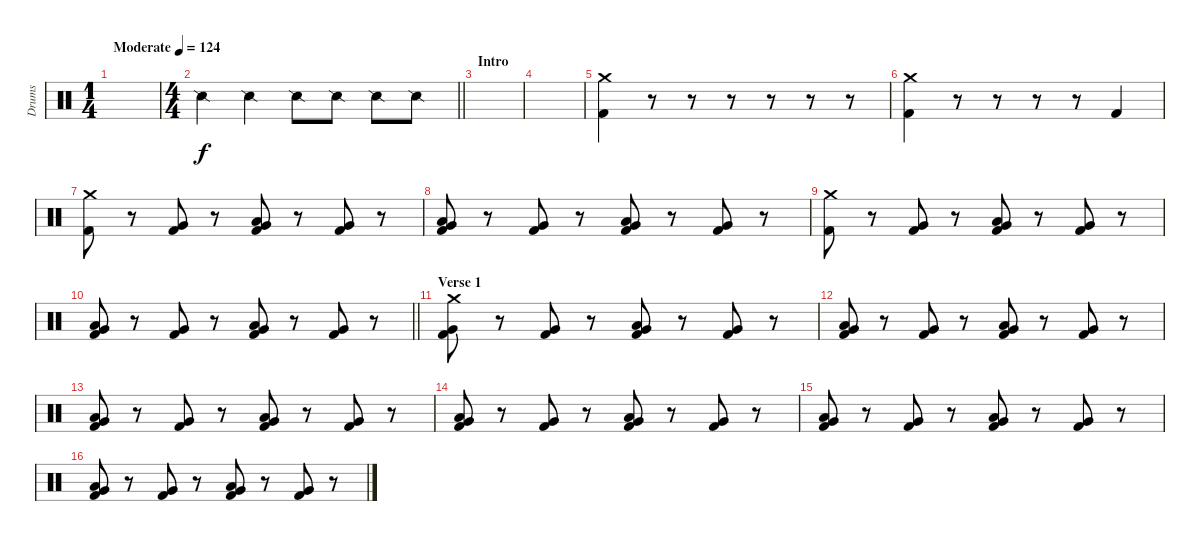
\track ("Drums" "Drums") {instrument percussion}
\staff {score}
\articulation defaults
\ts (1 4)
\tempo (124 "Moderate")
\clef neutral
\ks c
|
\ts (4 4)
\barLineRight lightlight "Snare (side stick) 2".4 "Snare (side stick) 2".4 "Snare (side stick) 2".8 "Snare (side stick) 2".8 "Snare (side stick) 2".8 "Snare (side stick) 2".8
|
\section ("" "Intro")
|
|
("Crash medium (hit)" "Kick (hit) 2").4 r.8 r.8 r.8 r.8 r.8 r.8 |
("Crash medium (hit)" "Kick (hit) 2").4 r.8 r.8 r.8 r.8 "Kick (hit) 2".4 |
("Crash medium (hit)" "Kick (hit) 2").8 r.8 ("Very Low Tom (hit)" "Kick (hit) 2").8 r.8 ("Very Low Tom (hit)" "Low Floor Tom (hit)" "Kick (hit) 2").8 r.8 ("Very Low Tom (hit)" "Kick (hit) 2").8 r.8 |
("Very Low Tom (hit)" "Low Floor Tom (hit)" "Kick (hit) 2").8 r.8 ("Very Low Tom (hit)" "Kick (hit) 2").8 r.8 ("Very Low Tom (hit)" "Low Floor Tom (hit)" "Kick (hit) 2").8 r.8 ("Very Low Tom (hit)" "Kick (hit) 2").8 r.8 |
("Crash medium (hit)" "Kick (hit) 2").8 r.8 ("Very Low Tom (hit)" "Kick (hit) 2").8 r.8 ("Very Low Tom (hit)" "Low Floor Tom (hit)" "Kick (hit) 2").8 r.8 ("Very Low Tom (hit)" "Kick (hit) 2").8 r.8 |
\barLineRight lightlight
("Very Low Tom (hit)" "Low Floor Tom (hit)" "Kick (hit) 2").8 r.8 ("Very Low Tom (hit)" "Kick (hit) 2").8 r.8 ("Very Low Tom (hit)" "Low Floor Tom (hit)" "Kick (hit) 2").8 r.8 ("Very Low Tom (hit)" "Kick (hit) 2").8 r.8 |
\section ("" "Verse 1")
("Crash medium (hit)" "Very Low Tom (hit)" "Kick (hit) 2").8 r.8 ("Very Low Tom (hit)" "Kick (hit) 2").8 r.8 ("Very Low Tom (hit)" "Low Floor Tom (hit)" "Kick (hit) 2").8 r.8 ("Very Low Tom (hit)" "Kick (hit) 2").8 r.8 |
("Very Low Tom (hit)" "Low Floor Tom (hit)" "Kick (hit) 2").8 r.8 ("Very Low Tom (hit)" "Kick (hit) 2").8 r.8 ("Very Low Tom (hit)" "Low Floor Tom (hit)" "Kick (hit) 2").8 r.8 ("Very Low Tom (hit)" "Kick (hit) 2").8 r.8 |
("Very Low Tom (hit)" "Low Floor Tom (hit)" "Kick (hit) 2").8 r.8 ("Very Low Tom (hit)" "Kick (hit) 2").8 r.8 ("Very Low Tom (hit)" "Low Floor Tom (hit)" "Kick (hit) 2").8 r.8 ("Very Low Tom (hit)" "Kick (hit) 2").8 r.8 |
("Very Low Tom (hit)" "Low Floor Tom (hit)" "Kick (hit) 2").8 r.8 ("Very Low Tom (hit)" "Kick (hit) 2").8 r.8 ("Very Low Tom (hit)" "Low Floor Tom (hit)" "Kick (hit) 2").8 r.8 ("Very Low Tom (hit)" "Kick (hit) 2").8 r.8 |
("Very Low Tom (hit)" "Low Floor Tom (hit)" "Kick (hit) 2").8 r.8 ("Very Low Tom (hit)" "Kick (hit) 2").8 r.8 ("Very Low Tom (hit)" "Low Floor Tom (hit)" "Kick (hit) 2").8 r.8 ("Very Low Tom (hit)" "Kick (hit) 2").8 r.8 |
("Very Low Tom (hit)" "Low Floor Tom (hit)" "Kick (hit) 2").8 r.8 ("Very Low Tom (hit)" "Kick (hit) 2").8 r.8 ("Very Low Tom (hit)" "Low Floor Tom (hit)" "Kick (hit) 2").8 r.8 ("Very Low Tom (hit)" "Kick (hit) 2").8 r.8
